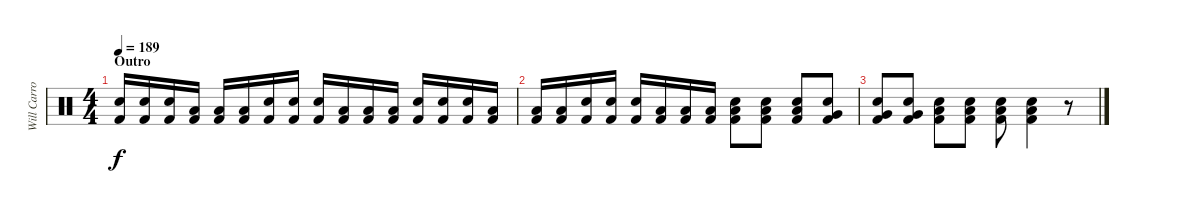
\track ("Will Carroll" "Will Carro") {instrument percussion}
\staff {score}
\articulation defaults
\ts (4 4)
\section ("" "Outro")
\tempo 189
\clef neutral
\ks c
("Electric Snare (hit)" "Kick (hit) 2").16{dy f} ("Electric Snare (hit)" "Kick (hit) 2").16 ("Electric Snare (hit)" "Kick (hit) 2").16 ("Low Floor Tom (hit)" "Kick (hit) 2").16 ("Low Floor Tom (hit)" "Kick (hit) 2").16 ("Low Floor Tom (hit)" "Kick (hit) 2").16 ("Electric Snare (hit)" "Kick (hit) 2").16 ("Electric Snare (hit)" "Kick (hit) 2").16 ("Electric Snare (hit)" "Kick (hit) 2").16 ("Low Floor Tom (hit)" "Kick (hit) 2").16 ("Low Floor Tom (hit)" "Kick (hit) 2").16 ("Low Floor Tom (hit)" "Kick (hit) 2").16 ("Electric Snare (hit)" "Kick (hit) 2").16 ("Electric Snare (hit)" "Kick (hit) 2").16 ("Electric Snare (hit)" "Kick (hit) 2").16 ("Low Floor Tom (hit)" "Kick (hit) 2").16 |
("Low Floor Tom (hit)" "Kick (hit) 2").16 ("Low Floor Tom (hit)" "Kick (hit) 2").16 ("Electric Snare (hit)" "Kick (hit) 2").16 ("Electric Snare (hit)" "Kick (hit) 2").16 ("Electric Snare (hit)" "Kick (hit) 2").16 ("Low Floor Tom (hit)" "Kick (hit) 2").16 ("Low Floor Tom (hit)" "Kick (hit) 2").16 ("Low Floor Tom (hit)" "Kick (hit) 2").16 ("Low Floor Tom (hit)" "Electric Snare (hit)" "Kick (hit) 2").8 ("Low Floor Tom (hit)" "Electric Snare (hit)" "Kick (hit) 2").8 ("Low Floor Tom (hit)" "Electric Snare (hit)" "Kick (hit) 2").8 ("Very Low Tom (hit)" "Electric Snare (hit)" "Kick (hit) 2").8 |
("Very Low Tom (hit)" "Electric Snare (hit)" "Kick (hit) 2").8 ("Very Low Tom (hit)" "Electric Snare (hit)" "Kick (hit) 2").8 ("Low Floor Tom (hit)" "Electric Snare (hit)" "Kick (hit) 2").8 ("Low Floor Tom (hit)" "Electric Snare (hit)" "Kick (hit) 2").8 ("Low Floor Tom (hit)" "Electric Snare (hit)" "Kick (hit) 2").8 ("Low Floor Tom (hit)" "Electric Snare (hit)" "Kick (hit) 2").4 r.8
